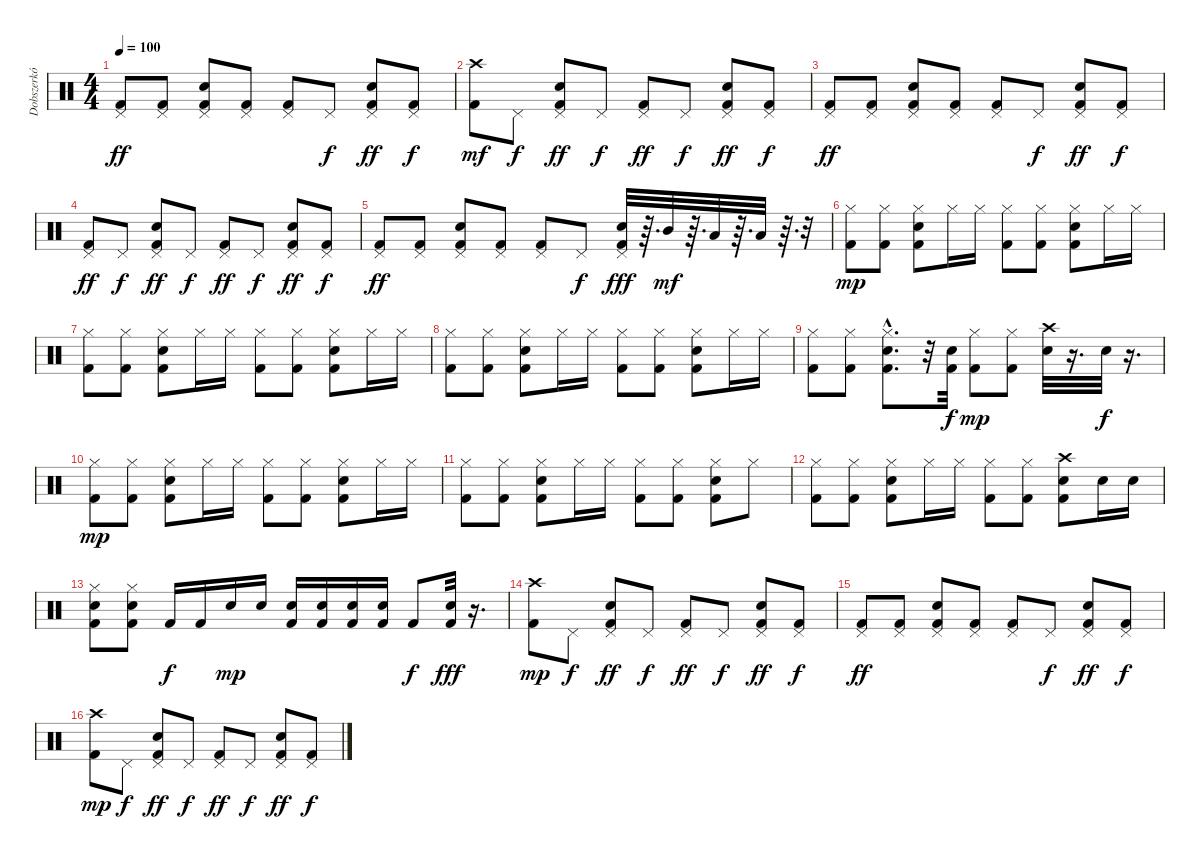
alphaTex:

\track ("Dobszerkó" "Dobszerkó") {instrument percussion}
\staff {score}
\articulation defaults
\ts (4 4)
\tempo 100
\clef neutral
\ks c
("Kick (hit) 2" "Pedal Hi-Hat (hit)").8{dy ff} ("Kick (hit) 2" "Pedal Hi-Hat (hit)").8 ("Electric Snare (hit)" "Kick (hit) 2" "Pedal Hi-Hat (hit)").8 ("Kick (hit) 2" "Pedal Hi-Hat (hit)").8 ("Kick (hit) 2" "Pedal Hi-Hat (hit)").8 "Pedal Hi-Hat (hit)".8{dy f} ("Electric Snare (hit)" "Kick (hit) 2" "Pedal Hi-Hat (hit)").8{dy ff} ("Kick (hit) 2" "Pedal Hi-Hat (hit)").8{dy f} |
("Kick (hit) 2" "Crash high (hit)").8{dy mf} "Pedal Hi-Hat (hit)".8{dy f} ("Electric Snare (hit)" "Kick (hit) 2" "Pedal Hi-Hat (hit)").8{dy ff} "Pedal Hi-Hat (hit)".8{dy f} ("Kick (hit) 2" "Pedal Hi-Hat (hit)").8{dy ff} "Pedal Hi-Hat (hit)".8{dy f} ("Electric Snare (hit)" "Kick (hit) 2" "Pedal Hi-Hat (hit)").8{dy ff} ("Kick (hit) 2" "Pedal Hi-Hat (hit)").8{dy f} |
("Kick (hit) 2" "Pedal Hi-Hat (hit)").8{dy ff} ("Kick (hit) 2" "Pedal Hi-Hat (hit)").8 ("Electric Snare (hit)" "Kick (hit) 2" "Pedal Hi-Hat (hit)").8 ("Kick (hit) 2" "Pedal Hi-Hat (hit)").8 ("Kick (hit) 2" "Pedal Hi-Hat (hit)").8 "Pedal Hi-Hat (hit)".8{dy f} ("Electric Snare (hit)" "Kick (hit) 2" "Pedal Hi-Hat (hit)").8{dy ff} ("Kick (hit) 2" "Pedal Hi-Hat (hit)").8{dy f} |
("Kick (hit) 2" "Pedal Hi-Hat (hit)").8{dy ff} "Pedal Hi-Hat (hit)".8{dy f} ("Electric Snare (hit)" "Kick (hit) 2" "Pedal Hi-Hat (hit)").8{dy ff} "Pedal Hi-Hat (hit)".8{dy f} ("Kick (hit) 2" "Pedal Hi-Hat (hit)").8{dy ff} "Pedal Hi-Hat (hit)".8{dy f} ("Electric Snare (hit)" "Kick (hit) 2" "Pedal Hi-Hat (hit)").8{dy ff} ("Kick (hit) 2" "Pedal Hi-Hat (hit)").8{dy f} |
("Kick (hit) 2" "Pedal Hi-Hat (hit)").8{dy ff} ("Kick (hit) 2" "Pedal Hi-Hat (hit)").8 ("Electric Snare (hit)" "Kick (hit) 2" "Pedal Hi-Hat (hit)").8 ("Kick (hit) 2" "Pedal Hi-Hat (hit)").8 ("Kick (hit) 2" "Pedal Hi-Hat (hit)").8 "Pedal Hi-Hat (hit)".8{dy f} ("Electric Snare (hit)" "Kick (hit) 2" "Pedal Hi-Hat (hit)").32{dy fff} r.64{d} "Mid Tom (hit)".32{dy mf} r.64{d} "Low Floor Tom (hit)".32 r.64{d} "Low Floor Tom (hit)".32 r.64{d} r.32 |
("Kick (hit) 2" "Hi-Hat (closed)").8{dy mp} ("Kick (hit) 2" "Hi-Hat (closed)").8 ("Electric Snare (hit)" "Kick (hit) 2" "Hi-Hat (closed)").8 "Hi-Hat (closed)".16 "Hi-Hat (closed)".16 ("Kick (hit) 2" "Hi-Hat (closed)").8 ("Kick (hit) 2" "Hi-Hat (closed)").8 ("Electric Snare (hit)" "Kick (hit) 2" "Hi-Hat (closed)").8 "Hi-Hat (closed)".16 "Hi-Hat (closed)".16 |
("Kick (hit) 2" "Hi-Hat (closed)").8 ("Kick (hit) 2" "Hi-Hat (closed)").8 ("Electric Snare (hit)" "Kick (hit) 2" "Hi-Hat (closed)").8 "Hi-Hat (closed)".16 "Hi-Hat (closed)".16 ("Kick (hit) 2" "Hi-Hat (closed)").8 ("Kick (hit) 2" "Hi-Hat (closed)").8 ("Electric Snare (hit)" "Kick (hit) 2" "Hi-Hat (closed)").8 "Hi-Hat (closed)".16 "Hi-Hat (closed)".16 |
("Kick (hit) 2" "Hi-Hat (closed)").8 ("Kick (hit) 2" "Hi-Hat (closed)").8 ("Electric Snare (hit)" "Kick (hit) 2" "Hi-Hat (closed)").8 "Hi-Hat (closed)".16 "Hi-Hat (closed)".16 ("Kick (hit) 2" "Hi-Hat (closed)").8 ("Kick (hit) 2" "Hi-Hat (closed)").8 ("Electric Snare (hit)" "Kick (hit) 2" "Hi-Hat (closed)").8 "Hi-Hat (closed)".16 "Hi-Hat (closed)".16 |
("Kick (hit) 2" "Hi-Hat (closed)").8 ("Kick (hit) 2" "Hi-Hat (closed)").8 ("Electric Snare (hit)"{hac} "Kick (hit) 2"{hac} "Hi-Hat (closed)"{hac}).8{d} r.32 ("Electric Snare (hit)" "Kick (hit) 2").32{dy f} ("Kick (hit) 2" "Hi-Hat (closed)").8{dy mp} ("Kick (hit) 2" "Hi-Hat (closed)").8 ("Electric Snare (hit)"{tr (40 64)} "Crash high (hit)").32 r.16{d} "Snare (hit) 2"{tr (38 64)}.32{dy f} r.16{d} |
("Kick (hit) 2" "Hi-Hat (closed)").8{dy mp} ("Kick (hit) 2" "Hi-Hat (closed)").8 ("Electric Snare (hit)" "Kick (hit) 2" "Hi-Hat (closed)").8 "Hi-Hat (closed)".16 "Hi-Hat (closed)".16 ("Kick (hit) 2" "Hi-Hat (closed)").8 ("Kick (hit) 2" "Hi-Hat (closed)").8 ("Electric Snare (hit)" "Kick (hit) 2" "Hi-Hat (closed)").8 "Hi-Hat (closed)".16 "Hi-Hat (closed)".16 |
("Kick (hit) 2" "Hi-Hat (closed)").8 ("Kick (hit) 2" "Hi-Hat (closed)").8 ("Electric Snare (hit)" "Kick (hit) 2" "Hi-Hat (closed)").8 "Hi-Hat (closed)".16 "Hi-Hat (closed)".16 ("Kick (hit) 2" "Hi-Hat (closed)").8 ("Kick (hit) 2" "Hi-Hat (closed)").8 ("Electric Snare (hit)" "Kick (hit) 2" "Hi-Hat (closed)").8 "Hi-Hat (closed)".8 |
("Kick (hit) 2" "Hi-Hat (closed)").8 ("Kick (hit) 2" "Hi-Hat (closed)").8 ("Electric Snare (hit)" "Kick (hit) 2" "Hi-Hat (closed)").8 "Hi-Hat (closed)".16 "Hi-Hat (closed)".16 ("Kick (hit) 2" "Hi-Hat (closed)").8 ("Kick (hit) 2" "Hi-Hat (closed)").8 ("Electric Snare (hit)" "Kick (hit) 2" "Crash high (hit)").8 "Electric Snare (hit)".16 "Electric Snare (hit)".16 |
("Electric Snare (hit)" "Kick (hit) 2" "Hi-Hat (closed)").8 ("Electric Snare (hit)" "Kick (hit) 2" "Hi-Hat (closed)").8 "Kick (hit) 2".16{dy f} "Kick (hit) 2".16 "Electric Snare (hit)".16{dy mp} "Electric Snare (hit)".16 ("Electric Snare (hit)" "Kick (hit) 2").16 ("Electric Snare (hit)" "Kick (hit) 2").16 ("Snare (hit) 2" "Kick (hit) 2").16 ("Snare (hit) 2" "Kick (hit) 2").16 "Kick (hit) 2".8{dy f} ("Electric Snare (hit)"{tr (40 64)} "Kick (hit) 2").32{dy fff} r.16{d} |
("Kick (hit) 2" "Crash high (hit)").8{dy mp} "Pedal Hi-Hat (hit)".8{dy f} ("Electric Snare (hit)" "Kick (hit) 2" "Pedal Hi-Hat (hit)").8{dy ff} "Pedal Hi-Hat (hit)".8{dy f} ("Kick (hit) 2" "Pedal Hi-Hat (hit)").8{dy ff} "Pedal Hi-Hat (hit)".8{dy f} ("Electric Snare (hit)" "Kick (hit) 2" "Pedal Hi-Hat (hit)").8{dy ff} ("Kick (hit) 2" "Pedal Hi-Hat (hit)").8{dy f} |
("Kick (hit) 2" "Pedal Hi-Hat (hit)").8{dy ff} ("Kick (hit) 2" "Pedal Hi-Hat (hit)").8 ("Electric Snare (hit)" "Kick (hit) 2" "Pedal Hi-Hat (hit)").8 ("Kick (hit) 2" "Pedal Hi-Hat (hit)").8 ("Kick (hit) 2" "Pedal Hi-Hat (hit)").8 "Pedal Hi-Hat (hit)".8{dy f} ("Electric Snare (hit)" "Kick (hit) 2" "Pedal Hi-Hat (hit)").8{dy ff} ("Kick (hit) 2" "Pedal Hi-Hat (hit)").8{dy f} |
("Kick (hit) 2" "Crash high (hit)").8{dy mp} "Pedal Hi-Hat (hit)".8{dy f} ("Electric Snare (hit)" "Kick (hit) 2" "Pedal Hi-Hat (hit)").8{dy ff} "Pedal Hi-Hat (hit)".8{dy f} ("Kick (hit) 2" "Pedal Hi-Hat (hit)").8{dy ff} "Pedal Hi-Hat (hit)".8{dy f} ("Electric Snare (hit)" "Kick (hit) 2" "Pedal Hi-Hat (hit)").8{dy ff} ("Kick (hit) 2" "Pedal Hi-Hat (hit)").8{dy f}
